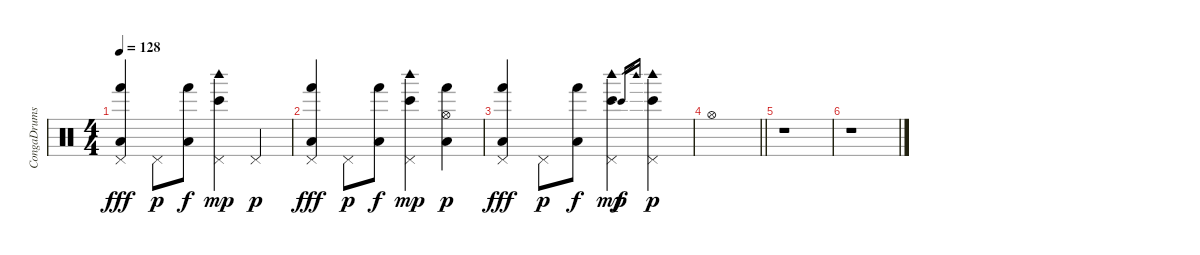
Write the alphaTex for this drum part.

\track ("CongaDrums" "CongaDrums") {instrument percussion}
\staff {score}
\articulation defaults
\ts (4 4)
\tempo 128
\clef neutral
\ks c
("Pedal Hi-Hat (hit)" "Hand (hit)" "Low Floor Tom (hit)").4{dy fff} "Pedal Hi-Hat (hit)".8{dy p} ("Hand (hit)" "Low Floor Tom (hit)").8{dy f} ("Bongo High (hit)" "Woodblock high (hit)" "Pedal Hi-Hat (hit)").4{dy mp} "Pedal Hi-Hat (hit)".4{dy p} |
("Pedal Hi-Hat (hit)" "Hand (hit)" "Low Floor Tom (hit)").4{dy fff} "Pedal Hi-Hat (hit)".8{dy p} ("Hand (hit)" "Low Floor Tom (hit)").8{dy f} ("Bongo High (hit)" "Woodblock high (hit)" "Pedal Hi-Hat (hit)").4{dy mp} ("Hi-Hat (open)" "Hand (hit)" "Low Floor Tom (hit)").4{dy p} |
("Pedal Hi-Hat (hit)" "Hand (hit)" "Low Floor Tom (hit)").4{dy fff} "Pedal Hi-Hat (hit)".8{dy p} ("Hand (hit)" "Low Floor Tom (hit)").8{dy f} ("Bongo High (hit)" "Woodblock high (hit)" "Pedal Hi-Hat (hit)").4{dy mp} "Bongo High (hit)".16{gr dy f} "Woodblock high (hit)".16{gr} ("Bongo High (hit)" "Woodblock high (hit)" "Pedal Hi-Hat (hit)").4{dy p} |
\barLineRight lightlight "Hi-Hat (open)".1
|
r.1 |
r.1
